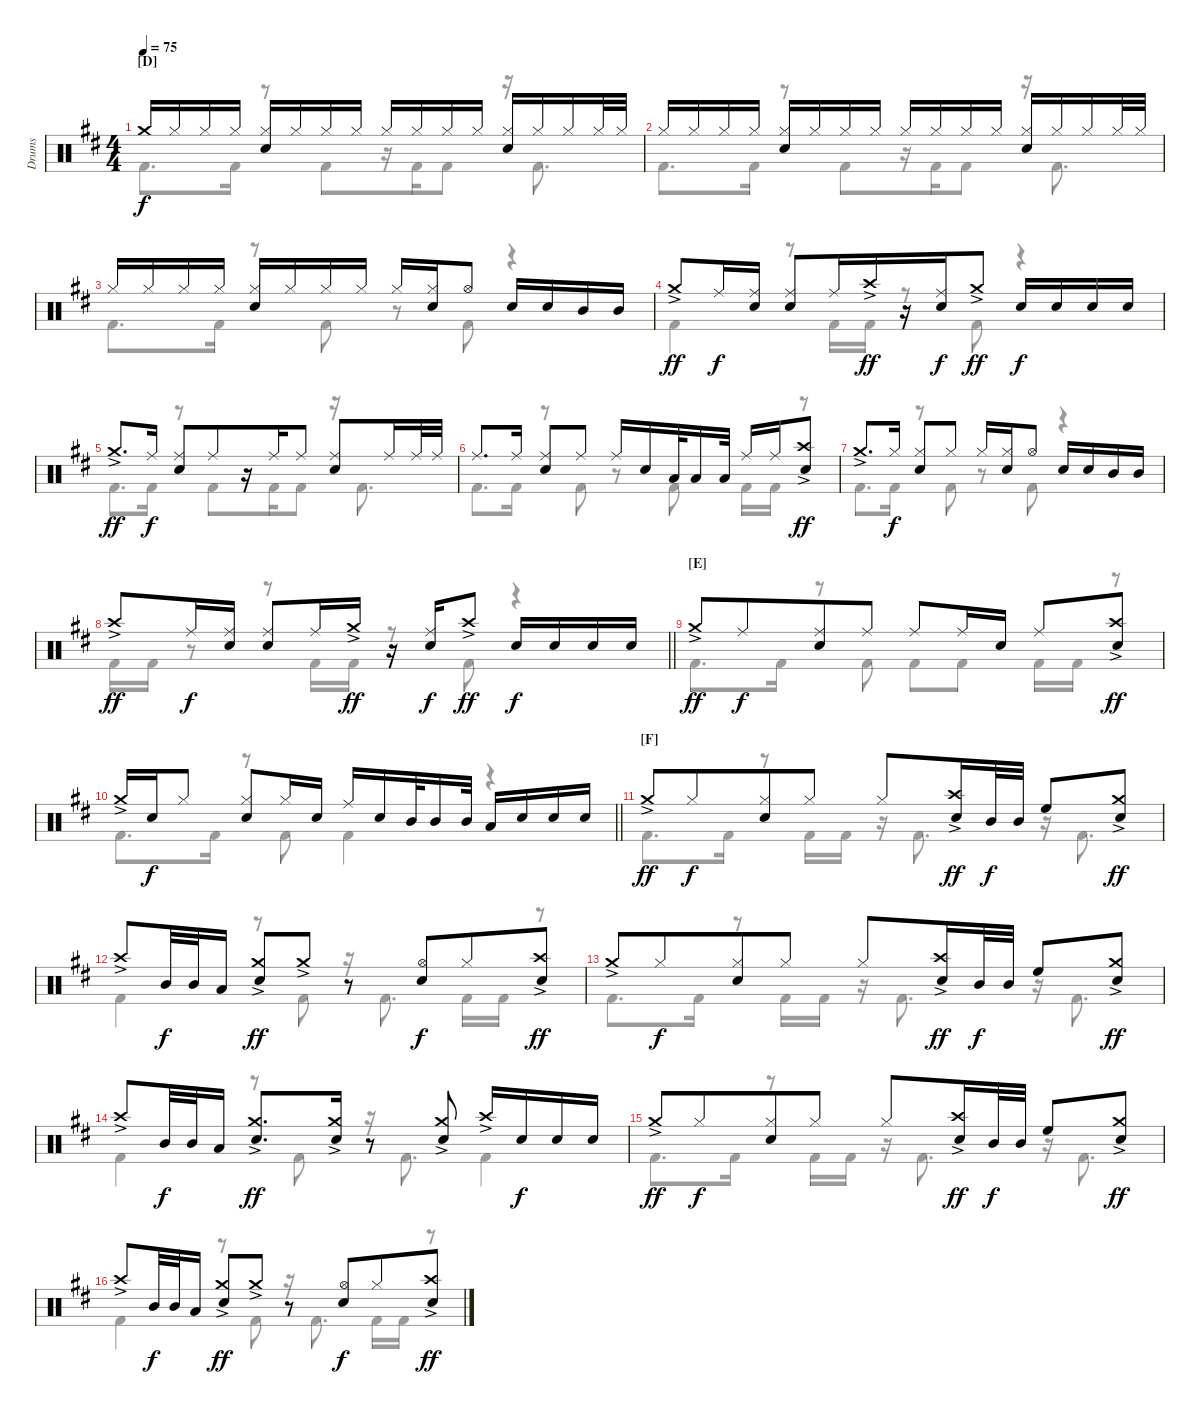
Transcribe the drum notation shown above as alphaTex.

\track ("Drums" "Drums") {instrument percussion}
\staff {score}
\articulation defaults
\voice
\ts (4 4)
\section ("" "[D]")
\tempo 75
\clef neutral
\ks bminor "Crash medium (hit)".16{dy f} "Hi-Hat (closed)".16 "Hi-Hat (closed)".16 "Hi-Hat (closed)".16
("Hi-Hat (closed)" "Snare (hit) 2").16 "Hi-Hat (closed)".16{beam merge} "Hi-Hat (closed)".16 "Hi-Hat (closed)".16 "Hi-Hat (closed)".16 "Hi-Hat (closed)".16 "Hi-Hat (closed)".16 "Hi-Hat (closed)".16 ("Hi-Hat (closed)" "Snare (hit) 2").16 "Hi-Hat (closed)".16 "Hi-Hat (closed)".16 "Hi-Hat (closed)".32{beam merge} "Hi-Hat (closed)".32 |
"Hi-Hat (closed)".16 "Hi-Hat (closed)".16 "Hi-Hat (closed)".16 "Hi-Hat (closed)".16 ("Hi-Hat (closed)" "Snare (hit) 2").16 "Hi-Hat (closed)".16 "Hi-Hat (closed)".16 "Hi-Hat (closed)".16 "Hi-Hat (closed)".16 "Hi-Hat (closed)".16 "Hi-Hat (closed)".16 "Hi-Hat (closed)".16 ("Hi-Hat (closed)" "Snare (hit) 2").16 "Hi-Hat (closed)".16 "Hi-Hat (closed)".16 "Hi-Hat (closed)".32{beam merge} "Hi-Hat (closed)".32 |
"Hi-Hat (closed)".16 "Hi-Hat (closed)".16 "Hi-Hat (closed)".16 "Hi-Hat (closed)".16 ("Hi-Hat (closed)" "Snare (hit) 2").16 "Hi-Hat (closed)".16 "Hi-Hat (closed)".16 "Hi-Hat (closed)".16 "Hi-Hat (closed)".16 ("Hi-Hat (closed)" "Snare (hit) 2").16 "Hi-Hat (open)".8 "Snare (hit) 2".16 "Snare (hit) 2".16 "Mid Tom (hit)".16 "Mid Tom (hit)".16 |
"Crash medium (hit)"{ac}.8{dy ff} "Ride (middle)".16{dy f} ("Ride (middle)" "Snare (hit) 2").16 ("Ride (middle)" "Snare (hit) 2").8 "Ride (middle)".16 "Crash high (hit)"{ac}.16{dy ff beam merge} r.16 ("Ride (middle)" "Snare (hit) 2").16{dy f} "Crash medium (hit)"{ac}.8{dy ff} "Snare (hit) 2".16{dy f beam merge} "Snare (hit) 2".16 "Snare (hit) 2".16{beam merge} "Snare (hit) 2".16 |
"Crash medium (hit)"{ac}.8{d dy ff} "Ride (middle)".16{dy f} ("Ride (middle)" "Snare (hit) 2").8 "Ride (middle)".8{beam merge} r.16 "Ride (middle)".16 "Ride (middle)".8 ("Ride (middle)" "Snare (hit) 2").8 "Ride (middle)".16{beam merge} "Ride (middle)".32{beam merge} "Ride (middle)".32 |
"Ride (middle)".8{d} "Ride (middle)".16 ("Ride (middle)" "Snare (hit) 2").8 "Ride (middle)".8 "Ride (middle)".16 "Snare (hit) 2".16 "Low Tom (hit)".32 "Low Tom (hit)".16 "Low Tom (hit)".32 "Ride (middle)".16{beam merge} "Ride (middle)".16{beam merge} ("Crash high (hit)"{ac} "Snare (hit) 2").8{dy ff} |
"Crash medium (hit)"{ac}.8{d} "Hi-Hat (closed)".16{dy f} ("Hi-Hat (closed)" "Snare (hit) 2").8 "Hi-Hat (closed)".8 "Hi-Hat (closed)".16 ("Hi-Hat (closed)" "Snare (hit) 2").16 "Hi-Hat (open)".8 "Snare (hit) 2".16 "Snare (hit) 2".16{beam merge} "Mid Tom (hit)".16 "Mid Tom (hit)".16 |
\barLineRight lightlight "Crash high (hit)"{ac}.8{dy ff} "Ride (middle)".16{dy f}
("Ride (middle)" "Snare (hit) 2").16 ("Ride (middle)" "Snare (hit) 2").8 "Ride (middle)".16 "Crash medium (hit)"{ac}.16{dy ff} r.16 ("Ride (middle)" "Snare (hit) 2").16{dy f} "Crash high (hit)"{ac}.8{dy ff} "Snare (hit) 2".16{dy f} "Snare (hit) 2".16{beam merge} "Snare (hit) 2".16 "Snare (hit) 2".16 |
\section ("" "[E]")
"Crash medium (hit)"{ac}.8{dy ff} "Ride (middle)".8{dy f beam merge} ("Ride (middle)" "Snare (hit) 2").8 "Ride (middle)".8 "Ride (middle)".8{beam merge} "Ride (middle)".16 "Snare (hit) 2".16 "Ride (middle)".8 ("Crash high (hit)"{ac} "Snare (hit) 2").8{dy ff} |
\barLineRight lightlight "Crash medium (hit)"{ac}.16 "Snare (hit) 2".16{dy f} "Hi-Hat (closed)".8
("Hi-Hat (closed)" "Snare (hit) 2").8 "Hi-Hat (closed)".16 "Snare (hit) 2".16 "Ride (middle)".16 "Snare (hit) 2".16 "Mid Tom (hit)".32 "Mid Tom (hit)".16 "Mid Tom (hit)".32 "Low Tom (hit)".16{beam merge} "Snare (hit) 2".16 "Snare (hit) 2".16 "Snare (hit) 2".16 |
\section ("" "[F]")
"Crash medium (hit)"{ac}.8{dy ff} "Hi-Hat (closed)".8{dy f beam merge} ("Hi-Hat (closed)" "Snare (hit) 2").8 "Hi-Hat (closed)".8 "Hi-Hat (closed)".8{beam merge} ("Crash high (hit)"{ac} "Snare (hit) 2").16{dy ff} "Mid Tom (hit)".32{dy f} "Mid Tom (hit)".32 "High Floor Tom (hit)".8 ("Crash medium (hit)"{ac} "Snare (hit) 2").8{dy ff} |
"Crash high (hit)"{ac}.8 "Mid Tom (hit)".32{dy f} "Mid Tom (hit)".32 "Low Tom (hit)".16 ("Crash medium (hit)"{ac} "Snare (hit) 2").8{dy ff} "Crash medium (hit)"{ac}.8 r.8 ("Hi-Hat (open)" "Snare (hit) 2").8{dy f beam merge} "Hi-Hat (closed)".8 ("Crash high (hit)"{ac} "Snare (hit) 2").8{dy ff} |
"Crash medium (hit)"{ac}.8 "Hi-Hat (closed)".8{dy f beam merge} ("Hi-Hat (closed)" "Snare (hit) 2").8 "Hi-Hat (closed)".8 "Hi-Hat (closed)".8{beam merge} ("Crash high (hit)"{ac} "Snare (hit) 2").16{dy ff} "Mid Tom (hit)".32{dy f} "Mid Tom (hit)".32 "High Floor Tom (hit)".8 ("Crash medium (hit)"{ac} "Snare (hit) 2").8{dy ff} |
"Crash high (hit)"{ac}.8 "Mid Tom (hit)".32{dy f} "Mid Tom (hit)".32 "Low Tom (hit)".16 ("Crash medium (hit)"{ac} "Snare (hit) 2").8{d dy ff} ("Crash medium (hit)"{ac} "Snare (hit) 2").16 r.8 ("Crash medium (hit)"{ac} "Snare (hit) 2").8 "Crash high (hit)"{ac}.16 "Snare (hit) 2".16{dy f beam merge} "Snare (hit) 2".16{beam merge} "Snare (hit) 2".16 |
"Crash medium (hit)"{ac}.8{dy ff} "Hi-Hat (closed)".8{dy f beam merge} ("Hi-Hat (closed)" "Snare (hit) 2").8 "Hi-Hat (closed)".8 "Hi-Hat (closed)".8{beam merge} ("Crash high (hit)"{ac} "Snare (hit) 2").16{dy ff} "Mid Tom (hit)".32{dy f} "Mid Tom (hit)".32 "High Floor Tom (hit)".8 ("Crash medium (hit)"{ac} "Snare (hit) 2").8{dy ff} |
"Crash high (hit)"{ac}.8 "Mid Tom (hit)".32{dy f} "Mid Tom (hit)".32 "Low Tom (hit)".16 ("Crash medium (hit)"{ac} "Snare (hit) 2").8{dy ff} "Crash medium (hit)"{ac}.8 r.8 ("Hi-Hat (open)" "Snare (hit) 2").8{dy f beam merge} "Hi-Hat (closed)".8 ("Crash high (hit)"{ac} "Snare (hit) 2").8{dy ff}
\voice
\clef neutral
\ottava regular
\simile none
\ks bminor "Kick (hit) 2".8{d dy f} "Kick (hit) 2".16
r.8 "Kick (hit) 2".8{beam merge} r.16 "Kick (hit) 2".16 "Kick (hit) 2".8 r.16 "Kick (hit) 2".8{d} |
"Kick (hit) 2".8{d} "Kick (hit) 2".16 r.8 "Kick (hit) 2".8{beam merge} r.16 "Kick (hit) 2".16 "Kick (hit) 2".8 r.16 "Kick (hit) 2".8{d} |
"Kick (hit) 2".8{d} "Kick (hit) 2".16 r.8 "Kick (hit) 2".8 r.8 "Kick (hit) 2".8 r.4 |
"Kick (hit) 2".4 r.8{beam merge} "Kick (hit) 2".16 "Kick (hit) 2".16 r.8 "Kick (hit) 2".8 r.4 |
"Kick (hit) 2".8{d} "Kick (hit) 2".16 r.8 "Kick (hit) 2".8{beam merge} r.16 "Kick (hit) 2".16 "Kick (hit) 2".8 r.16 "Kick (hit) 2".8{d} |
"Kick (hit) 2".8{d} "Kick (hit) 2".16 r.8 "Kick (hit) 2".8 r.8 "Kick (hit) 2".8 "Kick (hit) 2".16 "Kick (hit) 2".16 r.8 |
"Kick (hit) 2".8{d} "Kick (hit) 2".16 r.8 "Kick (hit) 2".8 r.8 "Kick (hit) 2".8 r.4 |
\barLineRight lightlight "Kick (hit) 2".16 "Kick (hit) 2".16
r.8 r.8 "Kick (hit) 2".16 "Kick (hit) 2".16 r.8 "Kick (hit) 2".8 r.4 |
"Kick (hit) 2".8{d} "Kick (hit) 2".16 r.8 "Kick (hit) 2".8 "Kick (hit) 2".8 "Kick (hit) 2".8 "Kick (hit) 2".16 "Kick (hit) 2".16 r.8 |
\barLineRight lightlight "Kick (hit) 2".8{d} "Kick (hit) 2".16
r.8 "Kick (hit) 2".8 "Kick (hit) 2".4 r.4 |
"Kick (hit) 2".8{d} "Kick (hit) 2".16 r.8 "Kick (hit) 2".16 "Kick (hit) 2".16 r.16 "Kick (hit) 2".8{d} r.16 "Kick (hit) 2".8{d} |
"Kick (hit) 2".4 r.8 "Kick (hit) 2".8 r.16 "Kick (hit) 2".8{d} "Kick (hit) 2".16 "Kick (hit) 2".16 r.8 |
"Kick (hit) 2".8{d} "Kick (hit) 2".16 r.8 "Kick (hit) 2".16 "Kick (hit) 2".16 r.16 "Kick (hit) 2".8{d} r.16 "Kick (hit) 2".8{d} |
"Kick (hit) 2".4 r.8 "Kick (hit) 2".8 r.16 "Kick (hit) 2".8{d} "Kick (hit) 2".4 |
"Kick (hit) 2".8{d} "Kick (hit) 2".16 r.8 "Kick (hit) 2".16 "Kick (hit) 2".16 r.16 "Kick (hit) 2".8{d} r.16 "Kick (hit) 2".8{d} |
"Kick (hit) 2".4 r.8 "Kick (hit) 2".8 r.16 "Kick (hit) 2".8{d} "Kick (hit) 2".16 "Kick (hit) 2".16 r.8
